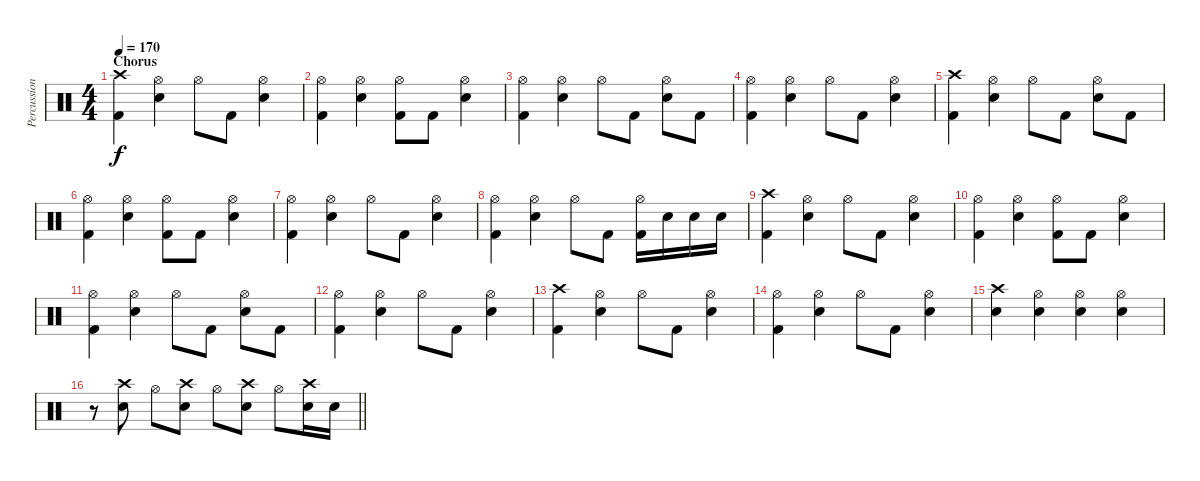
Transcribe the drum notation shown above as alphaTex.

\track ("Percussion" "Percussion") {instrument percussion}
\staff {score}
\articulation defaults
\ts (4 4)
\section ("" "Chorus")
\tempo 170
\clef neutral
\ks c
("Crash high (hit)" "Kick (hit) 2").4{dy f} ("Hi-Hat (open)" "Snare (hit) 2").4 "Hi-Hat (open)".8 "Kick (hit) 2".8 ("Hi-Hat (open)" "Snare (hit) 2").4 |
("Hi-Hat (open)" "Kick (hit) 2").4 ("Hi-Hat (open)" "Snare (hit) 2").4 ("Hi-Hat (open)" "Kick (hit) 2").8 "Kick (hit) 2".8 ("Hi-Hat (open)" "Snare (hit) 2").4 |
("Hi-Hat (open)" "Kick (hit) 2").4 ("Hi-Hat (open)" "Snare (hit) 2").4 "Hi-Hat (open)".8 "Kick (hit) 2".8 ("Hi-Hat (open)" "Snare (hit) 2").8 "Kick (hit) 2".8 |
("Hi-Hat (open)" "Kick (hit) 2").4 ("Hi-Hat (open)" "Snare (hit) 2").4 "Hi-Hat (open)".8 "Kick (hit) 2".8 ("Hi-Hat (open)" "Snare (hit) 2").4 |
("Crash high (hit)" "Kick (hit) 2").4 ("Hi-Hat (open)" "Snare (hit) 2").4 "Hi-Hat (open)".8 "Kick (hit) 2".8 ("Hi-Hat (open)" "Snare (hit) 2").8 "Kick (hit) 2".8 |
("Hi-Hat (open)" "Kick (hit) 2").4 ("Hi-Hat (open)" "Snare (hit) 2").4 ("Hi-Hat (open)" "Kick (hit) 2").8 "Kick (hit) 2".8 ("Hi-Hat (open)" "Snare (hit) 2").4 |
("Hi-Hat (open)" "Kick (hit) 2").4 ("Hi-Hat (open)" "Snare (hit) 2").4 "Hi-Hat (open)".8 "Kick (hit) 2".8 ("Hi-Hat (open)" "Snare (hit) 2").4 |
("Hi-Hat (open)" "Kick (hit) 2").4 ("Hi-Hat (open)" "Snare (hit) 2").4 "Hi-Hat (open)".8 "Kick (hit) 2".8 ("Hi-Hat (open)" "Kick (hit) 2").16 "Electric Snare (hit)".16 "Electric Snare (hit)".16 "Electric Snare (hit)".16 |
("Crash high (hit)" "Kick (hit) 2").4 ("Hi-Hat (open)" "Snare (hit) 2").4 "Hi-Hat (open)".8 "Kick (hit) 2".8 ("Hi-Hat (open)" "Snare (hit) 2").4 |
("Hi-Hat (open)" "Kick (hit) 2").4 ("Hi-Hat (open)" "Snare (hit) 2").4 ("Hi-Hat (open)" "Kick (hit) 2").8 "Kick (hit) 2".8 ("Hi-Hat (open)" "Snare (hit) 2").4 |
("Hi-Hat (open)" "Kick (hit) 2").4 ("Hi-Hat (open)" "Snare (hit) 2").4 "Hi-Hat (open)".8 "Kick (hit) 2".8 ("Hi-Hat (open)" "Snare (hit) 2").8 "Kick (hit) 2".8 |
("Hi-Hat (open)" "Kick (hit) 2").4 ("Hi-Hat (open)" "Snare (hit) 2").4 "Hi-Hat (open)".8 "Kick (hit) 2".8 ("Hi-Hat (open)" "Snare (hit) 2").4 |
("Crash high (hit)" "Kick (hit) 2").4 ("Hi-Hat (open)" "Snare (hit) 2").4 "Hi-Hat (open)".8 "Kick (hit) 2".8 ("Hi-Hat (open)" "Snare (hit) 2").4 |
("Hi-Hat (open)" "Kick (hit) 2").4 ("Hi-Hat (open)" "Snare (hit) 2").4 "Hi-Hat (open)".8 "Kick (hit) 2".8 ("Hi-Hat (open)" "Snare (hit) 2").4 |
("Crash high (hit)" "Snare (hit) 2").4 ("Hi-Hat (open)" "Snare (hit) 2").4 ("Hi-Hat (open)" "Snare (hit) 2").4 ("Hi-Hat (open)" "Snare (hit) 2").4 |
\barLineRight lightlight
r.8 ("Crash high (hit)" "Snare (hit) 2").8 "Hi-Hat (open)".8 ("Crash high (hit)" "Snare (hit) 2").8 "Hi-Hat (open)".8 ("Crash high (hit)" "Snare (hit) 2").8 "Hi-Hat (open)".8 ("Crash high (hit)" "Snare (hit) 2").16 "Snare (hit) 2".16
